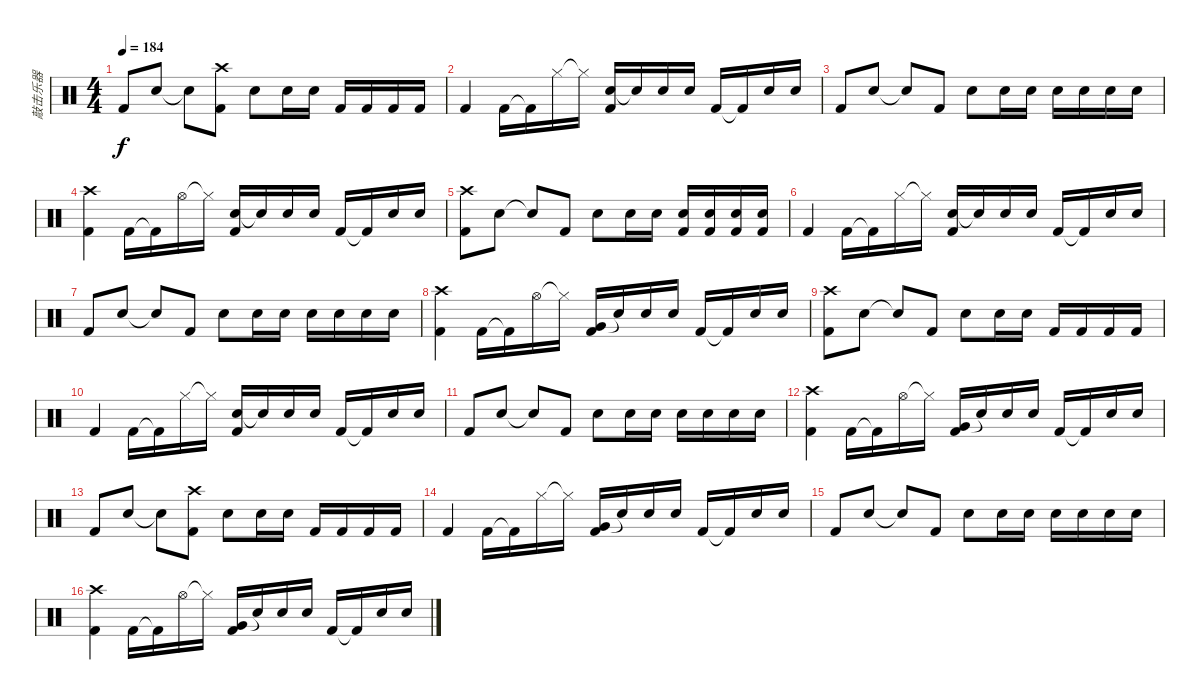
\track ("敲击乐器" "敲击乐器") {instrument percussion}
\staff {score}
\articulation defaults
\ts (4 4)
\tempo 184
\clef neutral
\ks c "Kick (hit) 2".8{dy f} "Snare (hit) 2".8 "Snare (hit) 2"{t}.8
("Crash high (hit)" "Kick (hit) 2").8 "Snare (hit) 2".8 "Snare (hit) 2".16 "Snare (hit) 2".16 "Kick (hit) 2".16 "Kick (hit) 2".16 "Kick (hit) 2".16 "Kick (hit) 2".16 |
"Kick (hit) 2".4 "Kick (hit) 2".16 "Kick (hit) 2"{t}.16 "Hi-Hat (closed)".16 "Hi-Hat (closed)"{t}.16 ("Snare (hit) 2" "Kick (hit) 2").16 "Snare (hit) 2"{t}.16 "Snare (hit) 2".16 "Snare (hit) 2".16 "Kick (hit) 2".16 "Kick (hit) 2"{t}.16 "Snare (hit) 2".16 "Snare (hit) 2".16 |
"Kick (hit) 2".8 "Snare (hit) 2".8 "Snare (hit) 2"{t}.8 "Kick (hit) 2".8 "Snare (hit) 2".8 "Snare (hit) 2".16 "Snare (hit) 2".16 "Snare (hit) 2".16 "Snare (hit) 2".16 "Snare (hit) 2".16 "Snare (hit) 2".16 |
("Crash high (hit)" "Kick (hit) 2").4 "Kick (hit) 2".16 "Kick (hit) 2"{t}.16 "Hi-Hat (open)".16 "Hi-Hat (closed)"{t}.16 ("Snare (hit) 2" "Kick (hit) 2").16 "Snare (hit) 2"{t}.16 "Snare (hit) 2".16 "Snare (hit) 2".16 "Kick (hit) 2".16 "Kick (hit) 2"{t}.16 "Snare (hit) 2".16 "Snare (hit) 2".16 |
("Crash high (hit)" "Kick (hit) 2").8 "Snare (hit) 2".8 "Snare (hit) 2"{t}.8 "Kick (hit) 2".8 "Snare (hit) 2".8 "Snare (hit) 2".16 "Snare (hit) 2".16 ("Snare (hit) 2" "Kick (hit) 2").16 ("Snare (hit) 2" "Kick (hit) 2").16 ("Snare (hit) 2" "Kick (hit) 2").16 ("Snare (hit) 2" "Kick (hit) 2").16 |
"Kick (hit) 2".4 "Kick (hit) 2".16 "Kick (hit) 2"{t}.16 "Hi-Hat (closed)".16 "Hi-Hat (closed)"{t}.16 ("Snare (hit) 2" "Kick (hit) 2").16 "Snare (hit) 2"{t}.16 "Snare (hit) 2".16 "Snare (hit) 2".16 "Kick (hit) 2".16 "Kick (hit) 2"{t}.16 "Snare (hit) 2".16 "Snare (hit) 2".16 |
"Kick (hit) 2".8 "Snare (hit) 2".8 "Snare (hit) 2"{t}.8 "Kick (hit) 2".8 "Snare (hit) 2".8 "Snare (hit) 2".16 "Snare (hit) 2".16 "Snare (hit) 2".16 "Snare (hit) 2".16 "Snare (hit) 2".16 "Snare (hit) 2".16 |
("Crash high (hit)" "Kick (hit) 2").4 "Kick (hit) 2".16 "Kick (hit) 2"{t}.16 "Hi-Hat (open)".16 "Hi-Hat (closed)"{t}.16 ("Very Low Tom (hit)" "Kick (hit) 2").16 "Snare (hit) 2"{t}.16 "Snare (hit) 2".16 "Snare (hit) 2".16 "Kick (hit) 2".16 "Kick (hit) 2"{t}.16 "Snare (hit) 2".16 "Snare (hit) 2".16 |
("Crash high (hit)" "Kick (hit) 2").8 "Snare (hit) 2".8 "Snare (hit) 2"{t}.8 "Kick (hit) 2".8 "Snare (hit) 2".8 "Snare (hit) 2".16 "Snare (hit) 2".16 "Kick (hit) 2".16 "Kick (hit) 2".16 "Kick (hit) 2".16 "Kick (hit) 2".16 |
"Kick (hit) 2".4 "Kick (hit) 2".16 "Kick (hit) 2"{t}.16 "Hi-Hat (closed)".16 "Hi-Hat (closed)"{t}.16 ("Snare (hit) 2" "Kick (hit) 2").16 "Snare (hit) 2"{t}.16 "Snare (hit) 2".16 "Snare (hit) 2".16 "Kick (hit) 2".16 "Kick (hit) 2"{t}.16 "Snare (hit) 2".16 "Snare (hit) 2".16 |
"Kick (hit) 2".8 "Snare (hit) 2".8 "Snare (hit) 2"{t}.8 "Kick (hit) 2".8 "Snare (hit) 2".8 "Snare (hit) 2".16 "Snare (hit) 2".16 "Snare (hit) 2".16 "Snare (hit) 2".16 "Snare (hit) 2".16 "Snare (hit) 2".16 |
("Crash high (hit)" "Kick (hit) 2").4 "Kick (hit) 2".16 "Kick (hit) 2"{t}.16 "Hi-Hat (open)".16 "Hi-Hat (closed)"{t}.16 ("Very Low Tom (hit)" "Kick (hit) 2").16 "Snare (hit) 2"{t}.16 "Snare (hit) 2".16 "Snare (hit) 2".16 "Kick (hit) 2".16 "Kick (hit) 2"{t}.16 "Snare (hit) 2".16 "Snare (hit) 2".16 |
"Kick (hit) 2".8 "Snare (hit) 2".8 "Snare (hit) 2"{t}.8 ("Crash high (hit)" "Kick (hit) 2").8 "Snare (hit) 2".8 "Snare (hit) 2".16 "Snare (hit) 2".16 "Kick (hit) 2".16 "Kick (hit) 2".16 "Kick (hit) 2".16 "Kick (hit) 2".16 |
"Kick (hit) 2".4 "Kick (hit) 2".16 "Kick (hit) 2"{t}.16 "Hi-Hat (closed)".16 "Hi-Hat (closed)"{t}.16 ("Very Low Tom (hit)" "Kick (hit) 2").16 "Snare (hit) 2"{t}.16 "Snare (hit) 2".16 "Snare (hit) 2".16 "Kick (hit) 2".16 "Kick (hit) 2"{t}.16 "Snare (hit) 2".16 "Snare (hit) 2".16 |
"Kick (hit) 2".8 "Snare (hit) 2".8 "Snare (hit) 2"{t}.8 "Kick (hit) 2".8 "Snare (hit) 2".8 "Snare (hit) 2".16 "Snare (hit) 2".16 "Snare (hit) 2".16 "Snare (hit) 2".16 "Snare (hit) 2".16 "Snare (hit) 2".16 |
("Crash high (hit)" "Kick (hit) 2").4 "Kick (hit) 2".16 "Kick (hit) 2"{t}.16 "Hi-Hat (open)".16 "Hi-Hat (closed)"{t}.16 ("Very Low Tom (hit)" "Kick (hit) 2").16 "Snare (hit) 2"{t}.16 "Snare (hit) 2".16 "Snare (hit) 2".16 "Kick (hit) 2".16 "Kick (hit) 2"{t}.16 "Snare (hit) 2".16 "Snare (hit) 2".16
